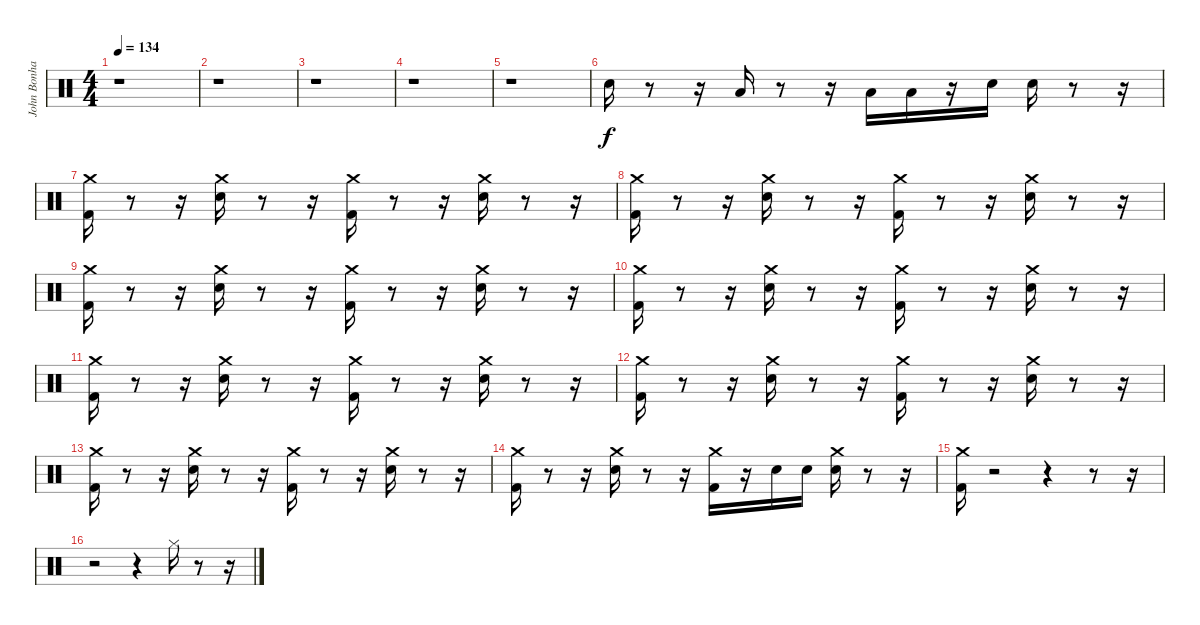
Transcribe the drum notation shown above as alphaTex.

\track ("John Bonham - Drums" "John Bonha") {instrument percussion}
\staff {score}
\articulation defaults
\ts (4 4)
\tempo 134
\clef neutral
\ks c
r.1{dy f} |
r.1 |
r.1 |
r.1 |
r.1 |
"Snare (hit) 2".16 r.8 r.16 "Low Floor Tom (hit)".16 r.8 r.16 "Low Tom (hit)".16 "Low Tom (hit)".16 r.16 "Snare (hit) 2".16 "Snare (hit) 2".16 r.8 r.16 |
("Kick (hit) 2" "Crash medium (hit)").16 r.8 r.16 ("Snare (hit) 2" "Crash medium (hit)").16 r.8 r.16 ("Kick (hit) 2" "Crash medium (hit)").16 r.8 r.16 ("Snare (hit) 2" "Crash medium (hit)").16 r.8 r.16 |
("Kick (hit) 2" "Crash medium (hit)").16 r.8 r.16 ("Snare (hit) 2" "Crash medium (hit)").16 r.8 r.16 ("Kick (hit) 2" "Crash medium (hit)").16 r.8 r.16 ("Snare (hit) 2" "Crash medium (hit)").16 r.8 r.16 |
("Kick (hit) 2" "Crash medium (hit)").16 r.8 r.16 ("Snare (hit) 2" "Crash medium (hit)").16 r.8 r.16 ("Kick (hit) 2" "Crash medium (hit)").16 r.8 r.16 ("Snare (hit) 2" "Crash medium (hit)").16 r.8 r.16 |
("Kick (hit) 2" "Crash medium (hit)").16 r.8 r.16 ("Snare (hit) 2" "Crash medium (hit)").16 r.8 r.16 ("Kick (hit) 2" "Crash medium (hit)").16 r.8 r.16 ("Snare (hit) 2" "Crash medium (hit)").16 r.8 r.16 |
("Kick (hit) 2" "Crash medium (hit)").16 r.8 r.16 ("Snare (hit) 2" "Crash medium (hit)").16 r.8 r.16 ("Kick (hit) 2" "Crash medium (hit)").16 r.8 r.16 ("Snare (hit) 2" "Crash medium (hit)").16 r.8 r.16 |
("Kick (hit) 2" "Crash medium (hit)").16 r.8 r.16 ("Snare (hit) 2" "Crash medium (hit)").16 r.8 r.16 ("Kick (hit) 2" "Crash medium (hit)").16 r.8 r.16 ("Snare (hit) 2" "Crash medium (hit)").16 r.8 r.16 |
("Kick (hit) 2" "Crash medium (hit)").16 r.8 r.16 ("Snare (hit) 2" "Crash medium (hit)").16 r.8 r.16 ("Kick (hit) 2" "Crash medium (hit)").16 r.8 r.16 ("Snare (hit) 2" "Crash medium (hit)").16 r.8 r.16 |
("Kick (hit) 2" "Crash medium (hit)").16 r.8 r.16 ("Snare (hit) 2" "Crash medium (hit)").16 r.8 r.16 ("Kick (hit) 2" "Crash medium (hit)").16 r.16 "Electric Snare (hit)".16 "Electric Snare (hit)".16 ("Electric Snare (hit)" "Crash medium (hit)").16 r.8 r.16 |
("Kick (hit) 2" "Crash medium (hit)").16 r.2 r.4 r.8 r.16 |
r.2 r.4 "Hi-Hat (closed)".16 r.8 r.16
